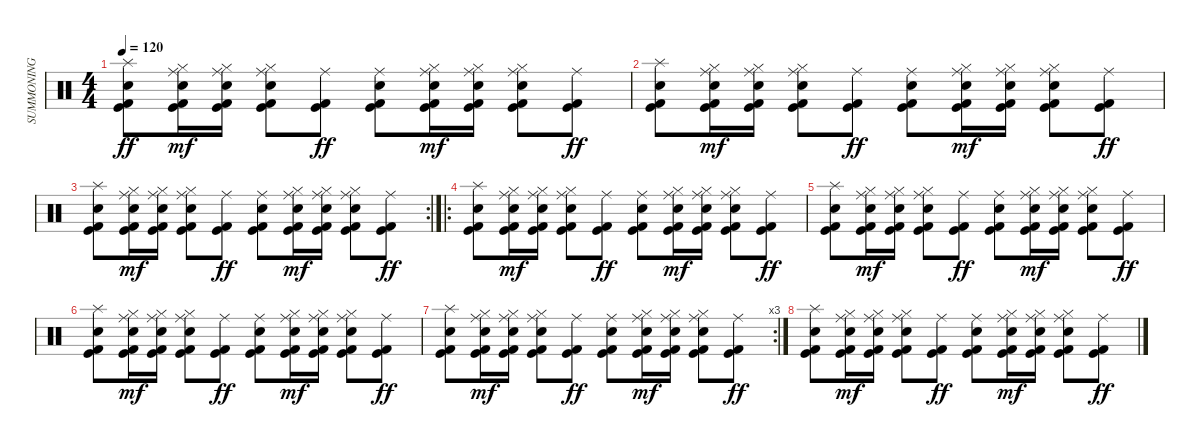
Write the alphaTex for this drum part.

\track ("SUMMONING" "SUMMONING") {instrument percussion}
\staff {score}
\articulation defaults
\ts (4 4)
\tempo 120
\clef neutral
\ks c
("Kick (hit) 2" "Kick (hit)" "Snare (hit) 2" "Splash (hit)").8{dy ff} ("Kick (hit) 2" "Kick (hit)" "Electric Snare (hit)" "Hi-Hat (closed)" "Ride (middle)").16{dy mf} ("Kick (hit) 2" "Kick (hit)" "Electric Snare (hit)" "Hi-Hat (closed)" "Ride (middle)").16 ("Kick (hit) 2" "Kick (hit)" "Electric Snare (hit)" "Hi-Hat (closed)" "Ride (middle)").8 ("Kick (hit) 2" "Kick (hit)" "Ride (middle)").8{dy ff} ("Kick (hit) 2" "Kick (hit)" "Snare (hit) 2" "Ride (middle)").8 ("Kick (hit) 2" "Kick (hit)" "Electric Snare (hit)" "Hi-Hat (closed)" "Ride (middle)").16{dy mf} ("Kick (hit) 2" "Kick (hit)" "Electric Snare (hit)" "Hi-Hat (closed)" "Ride (middle)").16 ("Kick (hit) 2" "Kick (hit)" "Electric Snare (hit)" "Hi-Hat (closed)" "Ride (middle)").8 ("Kick (hit) 2" "Kick (hit)" "Ride (middle)").8{dy ff} |
("Kick (hit) 2" "Kick (hit)" "Snare (hit) 2" "Splash (hit)").8 ("Kick (hit) 2" "Kick (hit)" "Electric Snare (hit)" "Hi-Hat (closed)" "Ride (middle)").16{dy mf} ("Kick (hit) 2" "Kick (hit)" "Electric Snare (hit)" "Hi-Hat (closed)" "Ride (middle)").16 ("Kick (hit) 2" "Kick (hit)" "Electric Snare (hit)" "Hi-Hat (closed)" "Ride (middle)").8 ("Kick (hit) 2" "Kick (hit)" "Ride (middle)").8{dy ff} ("Kick (hit) 2" "Kick (hit)" "Snare (hit) 2" "Ride (middle)").8 ("Kick (hit) 2" "Kick (hit)" "Electric Snare (hit)" "Hi-Hat (closed)" "Ride (middle)").16{dy mf} ("Kick (hit) 2" "Kick (hit)" "Electric Snare (hit)" "Hi-Hat (closed)" "Ride (middle)").16 ("Kick (hit) 2" "Kick (hit)" "Electric Snare (hit)" "Hi-Hat (closed)" "Ride (middle)").8 ("Kick (hit) 2" "Kick (hit)" "Ride (middle)").8{dy ff} |
\rc 2
("Kick (hit) 2" "Kick (hit)" "Snare (hit) 2" "Splash (hit)").8 ("Kick (hit) 2" "Kick (hit)" "Electric Snare (hit)" "Hi-Hat (closed)" "Ride (middle)").16{dy mf} ("Kick (hit) 2" "Kick (hit)" "Electric Snare (hit)" "Hi-Hat (closed)" "Ride (middle)").16 ("Kick (hit) 2" "Kick (hit)" "Electric Snare (hit)" "Hi-Hat (closed)" "Ride (middle)").8 ("Kick (hit) 2" "Kick (hit)" "Ride (middle)").8{dy ff} ("Kick (hit) 2" "Kick (hit)" "Snare (hit) 2" "Ride (middle)").8 ("Kick (hit) 2" "Kick (hit)" "Electric Snare (hit)" "Hi-Hat (closed)" "Ride (middle)").16{dy mf} ("Kick (hit) 2" "Kick (hit)" "Electric Snare (hit)" "Hi-Hat (closed)" "Ride (middle)").16 ("Kick (hit) 2" "Kick (hit)" "Electric Snare (hit)" "Hi-Hat (closed)" "Ride (middle)").8 ("Kick (hit) 2" "Kick (hit)" "Ride (middle)").8{dy ff} |
\ro
("Kick (hit) 2" "Kick (hit)" "Snare (hit) 2" "Splash (hit)").8 ("Kick (hit) 2" "Kick (hit)" "Electric Snare (hit)" "Hi-Hat (closed)" "Ride (middle)").16{dy mf} ("Kick (hit) 2" "Kick (hit)" "Electric Snare (hit)" "Hi-Hat (closed)" "Ride (middle)").16 ("Kick (hit) 2" "Kick (hit)" "Electric Snare (hit)" "Hi-Hat (closed)" "Ride (middle)").8 ("Kick (hit) 2" "Kick (hit)" "Ride (middle)").8{dy ff} ("Kick (hit) 2" "Kick (hit)" "Snare (hit) 2" "Ride (middle)").8 ("Kick (hit) 2" "Kick (hit)" "Electric Snare (hit)" "Hi-Hat (closed)" "Ride (middle)").16{dy mf} ("Kick (hit) 2" "Kick (hit)" "Electric Snare (hit)" "Hi-Hat (closed)" "Ride (middle)").16 ("Kick (hit) 2" "Kick (hit)" "Electric Snare (hit)" "Hi-Hat (closed)" "Ride (middle)").8 ("Kick (hit) 2" "Kick (hit)" "Ride (middle)").8{dy ff} |
("Kick (hit) 2" "Kick (hit)" "Snare (hit) 2" "Splash (hit)").8 ("Kick (hit) 2" "Kick (hit)" "Electric Snare (hit)" "Hi-Hat (closed)" "Ride (middle)").16{dy mf} ("Kick (hit) 2" "Kick (hit)" "Electric Snare (hit)" "Hi-Hat (closed)" "Ride (middle)").16 ("Kick (hit) 2" "Kick (hit)" "Electric Snare (hit)" "Hi-Hat (closed)" "Ride (middle)").8 ("Kick (hit) 2" "Kick (hit)" "Ride (middle)").8{dy ff} ("Kick (hit) 2" "Kick (hit)" "Snare (hit) 2" "Ride (middle)").8 ("Kick (hit) 2" "Kick (hit)" "Electric Snare (hit)" "Hi-Hat (closed)" "Ride (middle)").16{dy mf} ("Kick (hit) 2" "Kick (hit)" "Electric Snare (hit)" "Hi-Hat (closed)" "Ride (middle)").16 ("Kick (hit) 2" "Kick (hit)" "Electric Snare (hit)" "Hi-Hat (closed)" "Ride (middle)").8 ("Kick (hit) 2" "Kick (hit)" "Ride (middle)").8{dy ff} |
("Kick (hit) 2" "Kick (hit)" "Snare (hit) 2" "Splash (hit)").8 ("Kick (hit) 2" "Kick (hit)" "Electric Snare (hit)" "Hi-Hat (closed)" "Ride (middle)").16{dy mf} ("Kick (hit) 2" "Kick (hit)" "Electric Snare (hit)" "Hi-Hat (closed)" "Ride (middle)").16 ("Kick (hit) 2" "Kick (hit)" "Electric Snare (hit)" "Hi-Hat (closed)" "Ride (middle)").8 ("Kick (hit) 2" "Kick (hit)" "Ride (middle)").8{dy ff} ("Kick (hit) 2" "Kick (hit)" "Snare (hit) 2" "Ride (middle)").8 ("Kick (hit) 2" "Kick (hit)" "Electric Snare (hit)" "Hi-Hat (closed)" "Ride (middle)").16{dy mf} ("Kick (hit) 2" "Kick (hit)" "Electric Snare (hit)" "Hi-Hat (closed)" "Ride (middle)").16 ("Kick (hit) 2" "Kick (hit)" "Electric Snare (hit)" "Hi-Hat (closed)" "Ride (middle)").8 ("Kick (hit) 2" "Kick (hit)" "Ride (middle)").8{dy ff} |
\rc 3
("Kick (hit) 2" "Kick (hit)" "Snare (hit) 2" "Splash (hit)").8 ("Kick (hit) 2" "Kick (hit)" "Electric Snare (hit)" "Hi-Hat (closed)" "Ride (middle)").16{dy mf} ("Kick (hit) 2" "Kick (hit)" "Electric Snare (hit)" "Hi-Hat (closed)" "Ride (middle)").16 ("Kick (hit) 2" "Kick (hit)" "Electric Snare (hit)" "Hi-Hat (closed)" "Ride (middle)").8 ("Kick (hit) 2" "Kick (hit)" "Ride (middle)").8{dy ff} ("Kick (hit) 2" "Kick (hit)" "Snare (hit) 2" "Ride (middle)").8 ("Kick (hit) 2" "Kick (hit)" "Electric Snare (hit)" "Hi-Hat (closed)" "Ride (middle)").16{dy mf} ("Kick (hit) 2" "Kick (hit)" "Electric Snare (hit)" "Hi-Hat (closed)" "Ride (middle)").16 ("Kick (hit) 2" "Kick (hit)" "Electric Snare (hit)" "Hi-Hat (closed)" "Ride (middle)").8 ("Kick (hit) 2" "Kick (hit)" "Ride (middle)").8{dy ff} |
("Kick (hit) 2" "Kick (hit)" "Snare (hit) 2" "Splash (hit)").8 ("Kick (hit) 2" "Kick (hit)" "Electric Snare (hit)" "Hi-Hat (closed)" "Ride (middle)").16{dy mf} ("Kick (hit) 2" "Kick (hit)" "Electric Snare (hit)" "Hi-Hat (closed)" "Ride (middle)").16 ("Kick (hit) 2" "Kick (hit)" "Electric Snare (hit)" "Hi-Hat (closed)" "Ride (middle)").8 ("Kick (hit) 2" "Kick (hit)" "Ride (middle)").8{dy ff} ("Kick (hit) 2" "Kick (hit)" "Snare (hit) 2" "Ride (middle)").8 ("Kick (hit) 2" "Kick (hit)" "Electric Snare (hit)" "Hi-Hat (closed)" "Ride (middle)").16{dy mf} ("Kick (hit) 2" "Kick (hit)" "Electric Snare (hit)" "Hi-Hat (closed)" "Ride (middle)").16 ("Kick (hit) 2" "Kick (hit)" "Electric Snare (hit)" "Hi-Hat (closed)" "Ride (middle)").8 ("Kick (hit) 2" "Kick (hit)" "Ride (middle)").8{dy ff}
